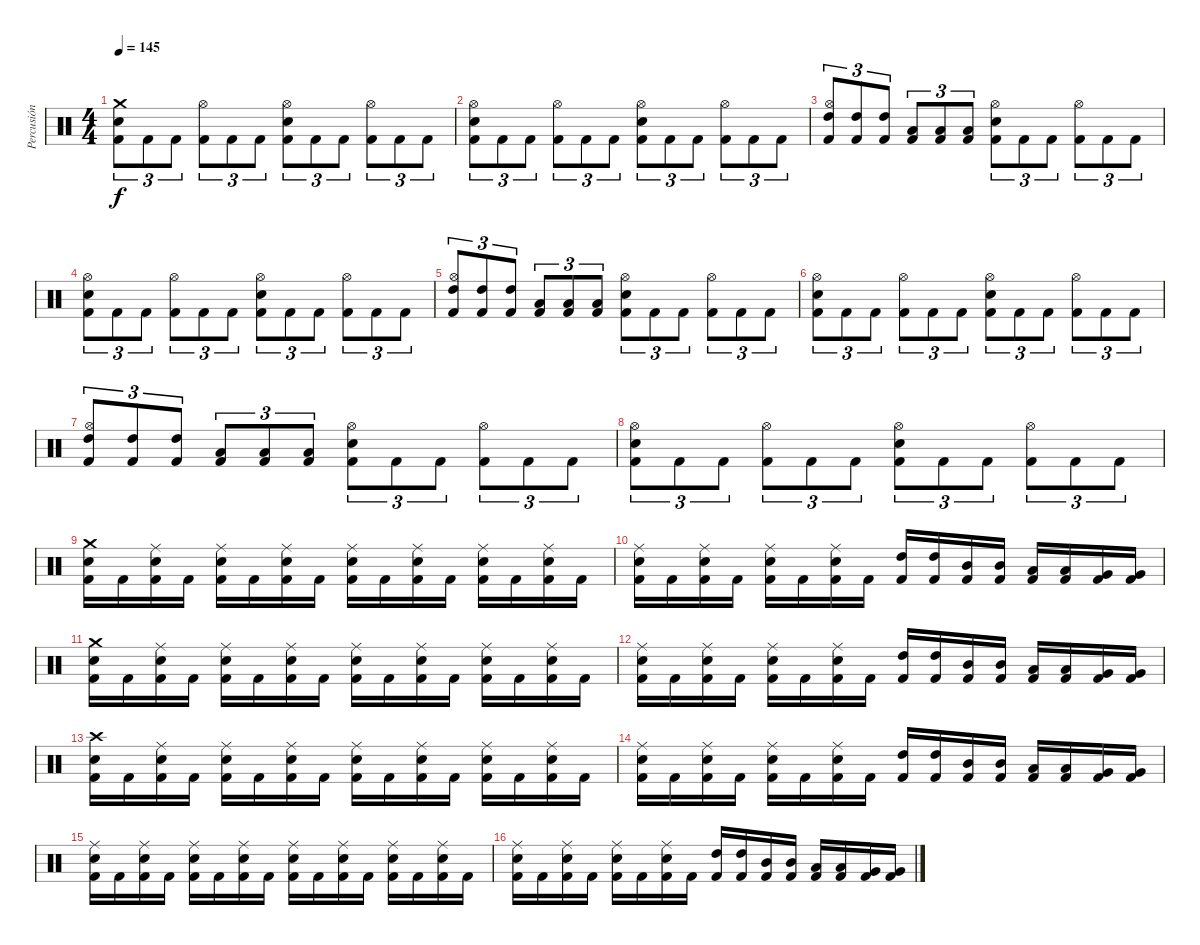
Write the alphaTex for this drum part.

\track ("Percusión" "Percusión") {instrument percussion}
\staff {score}
\articulation defaults
\ts (4 4)
\tempo 145
\tempo 230
\tempo 145
\clef neutral
\ks c
("Crash medium (hit)" "Electric Snare (hit)" "Kick (hit) 2").8{tu (3 2) dy f} "Kick (hit) 2".8{tu (3 2)} "Kick (hit) 2".8{tu (3 2)} ("Hi-Hat (open)" "Kick (hit) 2").8{tu (3 2)} "Kick (hit) 2".8{tu (3 2)} "Kick (hit) 2".8{tu (3 2)} ("Hi-Hat (open)" "Electric Snare (hit)" "Kick (hit) 2").8{tu (3 2)} "Kick (hit) 2".8{tu (3 2)} "Kick (hit) 2".8{tu (3 2)} ("Hi-Hat (open)" "Kick (hit) 2").8{tu (3 2)} "Kick (hit) 2".8{tu (3 2)} "Kick (hit) 2".8{tu (3 2)} |
("Hi-Hat (open)" "Electric Snare (hit)" "Kick (hit) 2").8{tu (3 2)} "Kick (hit) 2".8{tu (3 2)} "Kick (hit) 2".8{tu (3 2)} ("Hi-Hat (open)" "Kick (hit) 2").8{tu (3 2)} "Kick (hit) 2".8{tu (3 2)} "Kick (hit) 2".8{tu (3 2)} ("Hi-Hat (open)" "Electric Snare (hit)" "Kick (hit) 2").8{tu (3 2)} "Kick (hit) 2".8{tu (3 2)} "Kick (hit) 2".8{tu (3 2)} ("Hi-Hat (open)" "Kick (hit) 2").8{tu (3 2)} "Kick (hit) 2".8{tu (3 2)} "Kick (hit) 2".8{tu (3 2)} |
("Hi-Hat (open)" "High Tom (hit)" "Kick (hit) 2").8{tu (3 2)} ("High Tom (hit)" "Kick (hit) 2").8{tu (3 2)} ("High Tom (hit)" "Kick (hit) 2").8{tu (3 2)} ("Low Tom (hit)" "Kick (hit) 2").8{tu (3 2)} ("Low Tom (hit)" "Kick (hit) 2").8{tu (3 2)} ("Low Tom (hit)" "Kick (hit) 2").8{tu (3 2)} ("Hi-Hat (open)" "Electric Snare (hit)" "Kick (hit) 2").8{tu (3 2)} "Kick (hit) 2".8{tu (3 2)} "Kick (hit) 2".8{tu (3 2)} ("Hi-Hat (open)" "Kick (hit) 2").8{tu (3 2)} "Kick (hit) 2".8{tu (3 2)} "Kick (hit) 2".8{tu (3 2)} |
("Hi-Hat (open)" "Electric Snare (hit)" "Kick (hit) 2").8{tu (3 2)} "Kick (hit) 2".8{tu (3 2)} "Kick (hit) 2".8{tu (3 2)} ("Hi-Hat (open)" "Kick (hit) 2").8{tu (3 2)} "Kick (hit) 2".8{tu (3 2)} "Kick (hit) 2".8{tu (3 2)} ("Hi-Hat (open)" "Electric Snare (hit)" "Kick (hit) 2").8{tu (3 2)} "Kick (hit) 2".8{tu (3 2)} "Kick (hit) 2".8{tu (3 2)} ("Hi-Hat (open)" "Kick (hit) 2").8{tu (3 2)} "Kick (hit) 2".8{tu (3 2)} "Kick (hit) 2".8{tu (3 2)} |
("Hi-Hat (open)" "High Tom (hit)" "Kick (hit) 2").8{tu (3 2)} ("High Tom (hit)" "Kick (hit) 2").8{tu (3 2)} ("High Tom (hit)" "Kick (hit) 2").8{tu (3 2)} ("Low Tom (hit)" "Kick (hit) 2").8{tu (3 2)} ("Low Tom (hit)" "Kick (hit) 2").8{tu (3 2)} ("Low Tom (hit)" "Kick (hit) 2").8{tu (3 2)} ("Hi-Hat (open)" "Electric Snare (hit)" "Kick (hit) 2").8{tu (3 2)} "Kick (hit) 2".8{tu (3 2)} "Kick (hit) 2".8{tu (3 2)} ("Hi-Hat (open)" "Kick (hit) 2").8{tu (3 2)} "Kick (hit) 2".8{tu (3 2)} "Kick (hit) 2".8{tu (3 2)} |
("Hi-Hat (open)" "Electric Snare (hit)" "Kick (hit) 2").8{tu (3 2)} "Kick (hit) 2".8{tu (3 2)} "Kick (hit) 2".8{tu (3 2)} ("Hi-Hat (open)" "Kick (hit) 2").8{tu (3 2)} "Kick (hit) 2".8{tu (3 2)} "Kick (hit) 2".8{tu (3 2)} ("Hi-Hat (open)" "Electric Snare (hit)" "Kick (hit) 2").8{tu (3 2)} "Kick (hit) 2".8{tu (3 2)} "Kick (hit) 2".8{tu (3 2)} ("Hi-Hat (open)" "Kick (hit) 2").8{tu (3 2)} "Kick (hit) 2".8{tu (3 2)} "Kick (hit) 2".8{tu (3 2)} |
("Hi-Hat (open)" "High Tom (hit)" "Kick (hit) 2").8{tu (3 2)} ("High Tom (hit)" "Kick (hit) 2").8{tu (3 2)} ("High Tom (hit)" "Kick (hit) 2").8{tu (3 2)} ("Low Tom (hit)" "Kick (hit) 2").8{tu (3 2)} ("Low Tom (hit)" "Kick (hit) 2").8{tu (3 2)} ("Low Tom (hit)" "Kick (hit) 2").8{tu (3 2)} ("Hi-Hat (open)" "Electric Snare (hit)" "Kick (hit) 2").8{tu (3 2)} "Kick (hit) 2".8{tu (3 2)} "Kick (hit) 2".8{tu (3 2)} ("Hi-Hat (open)" "Kick (hit) 2").8{tu (3 2)} "Kick (hit) 2".8{tu (3 2)} "Kick (hit) 2".8{tu (3 2)} |
("Hi-Hat (open)" "Electric Snare (hit)" "Kick (hit) 2").8{tu (3 2)} "Kick (hit) 2".8{tu (3 2)} "Kick (hit) 2".8{tu (3 2)} ("Hi-Hat (open)" "Kick (hit) 2").8{tu (3 2)} "Kick (hit) 2".8{tu (3 2)} "Kick (hit) 2".8{tu (3 2)} ("Hi-Hat (open)" "Electric Snare (hit)" "Kick (hit) 2").8{tu (3 2)} "Kick (hit) 2".8{tu (3 2)} "Kick (hit) 2".8{tu (3 2)} ("Hi-Hat (open)" "Kick (hit) 2").8{tu (3 2)} "Kick (hit) 2".8{tu (3 2)} "Kick (hit) 2".8{tu (3 2)} |
("Crash medium (hit)" "Electric Snare (hit)" "Kick (hit) 2").16 "Kick (hit) 2".16 ("Ride (middle)" "Electric Snare (hit)" "Kick (hit) 2").16 "Kick (hit) 2".16 ("Ride (middle)" "Electric Snare (hit)" "Kick (hit) 2").16 "Kick (hit) 2".16 ("Ride (middle)" "Electric Snare (hit)" "Kick (hit) 2").16 "Kick (hit) 2".16 ("Ride (middle)" "Electric Snare (hit)" "Kick (hit) 2").16 "Kick (hit) 2".16 ("Ride (middle)" "Electric Snare (hit)" "Kick (hit) 2").16 "Kick (hit) 2".16 ("Ride (middle)" "Electric Snare (hit)" "Kick (hit) 2").16 "Kick (hit) 2".16 ("Ride (middle)" "Electric Snare (hit)" "Kick (hit) 2").16 "Kick (hit) 2".16 |
("Ride (middle)" "Electric Snare (hit)" "Kick (hit) 2").16 "Kick (hit) 2".16 ("Ride (middle)" "Electric Snare (hit)" "Kick (hit) 2").16 "Kick (hit) 2".16 ("Ride (middle)" "Electric Snare (hit)" "Kick (hit) 2").16 "Kick (hit) 2".16 ("Ride (middle)" "Electric Snare (hit)" "Kick (hit) 2").16 "Kick (hit) 2".16 ("High Tom (hit)" "Kick (hit) 2").16 ("High Tom (hit)" "Kick (hit) 2").16 ("Mid Tom (hit)" "Kick (hit) 2").16 ("Mid Tom (hit)" "Kick (hit) 2").16 ("Low Tom (hit)" "Kick (hit) 2").16 ("Low Tom (hit)" "Kick (hit) 2").16 ("Very Low Tom (hit)" "Kick (hit) 2").16 ("Very Low Tom (hit)" "Kick (hit) 2").16 |
("Crash medium (hit)" "Electric Snare (hit)" "Kick (hit) 2").16 "Kick (hit) 2".16 ("Ride (middle)" "Electric Snare (hit)" "Kick (hit) 2").16 "Kick (hit) 2".16 ("Ride (middle)" "Electric Snare (hit)" "Kick (hit) 2").16 "Kick (hit) 2".16 ("Ride (middle)" "Electric Snare (hit)" "Kick (hit) 2").16 "Kick (hit) 2".16 ("Ride (middle)" "Electric Snare (hit)" "Kick (hit) 2").16 "Kick (hit) 2".16 ("Ride (middle)" "Electric Snare (hit)" "Kick (hit) 2").16 "Kick (hit) 2".16 ("Ride (middle)" "Electric Snare (hit)" "Kick (hit) 2").16 "Kick (hit) 2".16 ("Ride (middle)" "Electric Snare (hit)" "Kick (hit) 2").16 "Kick (hit) 2".16 |
("Ride (middle)" "Electric Snare (hit)" "Kick (hit) 2").16 "Kick (hit) 2".16 ("Ride (middle)" "Electric Snare (hit)" "Kick (hit) 2").16 "Kick (hit) 2".16 ("Ride (middle)" "Electric Snare (hit)" "Kick (hit) 2").16 "Kick (hit) 2".16 ("Ride (middle)" "Electric Snare (hit)" "Kick (hit) 2").16 "Kick (hit) 2".16 ("High Tom (hit)" "Kick (hit) 2").16 ("High Tom (hit)" "Kick (hit) 2").16 ("Mid Tom (hit)" "Kick (hit) 2").16 ("Mid Tom (hit)" "Kick (hit) 2").16 ("Low Tom (hit)" "Kick (hit) 2").16 ("Low Tom (hit)" "Kick (hit) 2").16 ("Very Low Tom (hit)" "Kick (hit) 2").16 ("Very Low Tom (hit)" "Kick (hit) 2").16 |
("Crash high (hit)" "Electric Snare (hit)" "Kick (hit) 2").16 "Kick (hit) 2".16 ("Ride (middle)" "Electric Snare (hit)" "Kick (hit) 2").16 "Kick (hit) 2".16 ("Ride (middle)" "Electric Snare (hit)" "Kick (hit) 2").16 "Kick (hit) 2".16 ("Ride (middle)" "Electric Snare (hit)" "Kick (hit) 2").16 "Kick (hit) 2".16 ("Ride (middle)" "Electric Snare (hit)" "Kick (hit) 2").16 "Kick (hit) 2".16 ("Ride (middle)" "Electric Snare (hit)" "Kick (hit) 2").16 "Kick (hit) 2".16 ("Ride (middle)" "Electric Snare (hit)" "Kick (hit) 2").16 "Kick (hit) 2".16 ("Ride (middle)" "Electric Snare (hit)" "Kick (hit) 2").16 "Kick (hit) 2".16 |
("Ride (middle)" "Electric Snare (hit)" "Kick (hit) 2").16 "Kick (hit) 2".16 ("Ride (middle)" "Electric Snare (hit)" "Kick (hit) 2").16 "Kick (hit) 2".16 ("Ride (middle)" "Electric Snare (hit)" "Kick (hit) 2").16 "Kick (hit) 2".16 ("Ride (middle)" "Electric Snare (hit)" "Kick (hit) 2").16 "Kick (hit) 2".16 ("High Tom (hit)" "Kick (hit) 2").16 ("High Tom (hit)" "Kick (hit) 2").16 ("Mid Tom (hit)" "Kick (hit) 2").16 ("Mid Tom (hit)" "Kick (hit) 2").16 ("Low Tom (hit)" "Kick (hit) 2").16 ("Low Tom (hit)" "Kick (hit) 2").16 ("Very Low Tom (hit)" "Kick (hit) 2").16 ("Very Low Tom (hit)" "Kick (hit) 2").16 |
("Ride (middle)" "Electric Snare (hit)" "Kick (hit) 2").16 "Kick (hit) 2".16 ("Ride (middle)" "Electric Snare (hit)" "Kick (hit) 2").16 "Kick (hit) 2".16 ("Ride (middle)" "Electric Snare (hit)" "Kick (hit) 2").16 "Kick (hit) 2".16 ("Ride (middle)" "Electric Snare (hit)" "Kick (hit) 2").16 "Kick (hit) 2".16 ("Ride (middle)" "Electric Snare (hit)" "Kick (hit) 2").16 "Kick (hit) 2".16 ("Ride (middle)" "Electric Snare (hit)" "Kick (hit) 2").16 "Kick (hit) 2".16 ("Ride (middle)" "Electric Snare (hit)" "Kick (hit) 2").16 "Kick (hit) 2".16 ("Ride (middle)" "Electric Snare (hit)" "Kick (hit) 2").16 "Kick (hit) 2".16 |
("Ride (middle)" "Electric Snare (hit)" "Kick (hit) 2").16 "Kick (hit) 2".16 ("Ride (middle)" "Electric Snare (hit)" "Kick (hit) 2").16 "Kick (hit) 2".16 ("Ride (middle)" "Electric Snare (hit)" "Kick (hit) 2").16 "Kick (hit) 2".16 ("Ride (middle)" "Electric Snare (hit)" "Kick (hit) 2").16 "Kick (hit) 2".16 ("High Tom (hit)" "Kick (hit) 2").16 ("High Tom (hit)" "Kick (hit) 2").16 ("Mid Tom (hit)" "Kick (hit) 2").16 ("Mid Tom (hit)" "Kick (hit) 2").16 ("Low Tom (hit)" "Kick (hit) 2").16 ("Low Tom (hit)" "Kick (hit) 2").16 ("Very Low Tom (hit)" "Kick (hit) 2").16 ("Very Low Tom (hit)" "Kick (hit) 2").16
